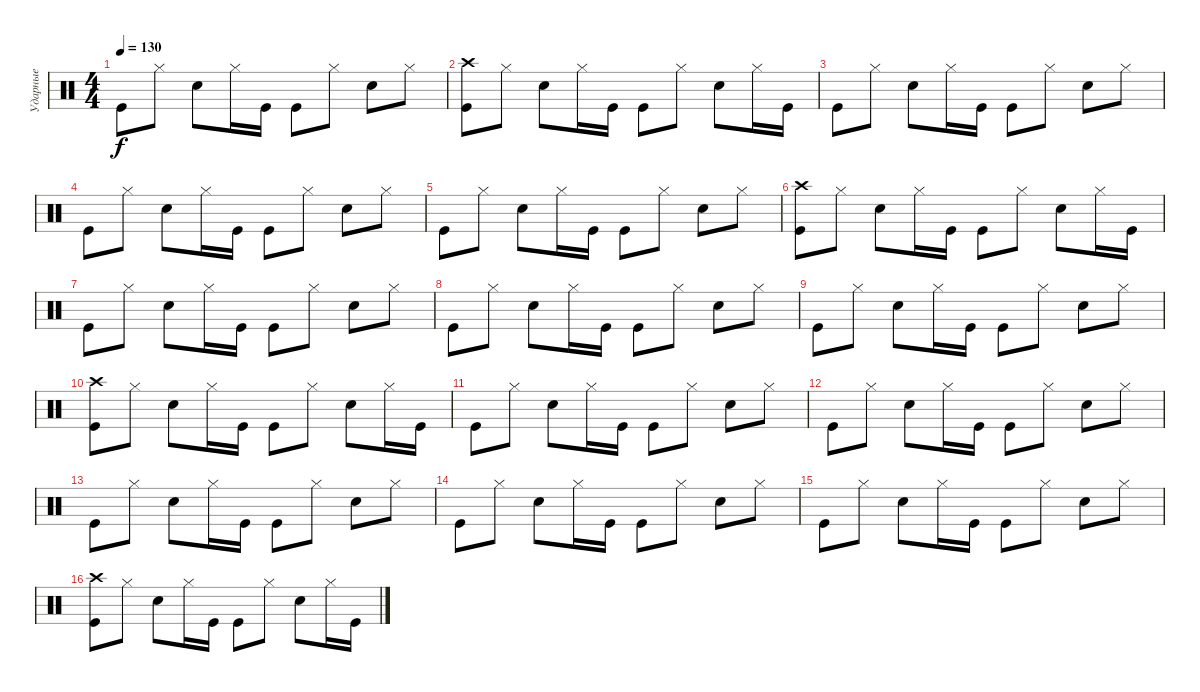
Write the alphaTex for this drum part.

\track ("Ударные" "Ударные") {instrument percussion}
\staff {score}
\articulation defaults
\ts (4 4)
\tempo 130
\clef neutral
\ks c "Kick (hit)".8{dy f} "Hi-Hat (closed)".8 "Electric Snare (hit)".8 "Hi-Hat (closed)".16 "Kick (hit)".16 "Kick (hit)".8 "Hi-Hat (closed)".8 "Electric Snare (hit)".8 "Hi-Hat (closed)".8
|
("Crash high (hit)" "Kick (hit)").8 "Hi-Hat (closed)".8 "Electric Snare (hit)".8 "Hi-Hat (closed)".16 "Kick (hit)".16 "Kick (hit)".8 "Hi-Hat (closed)".8 "Electric Snare (hit)".8 "Hi-Hat (closed)".16 "Kick (hit)".16 |
"Kick (hit)".8 "Hi-Hat (closed)".8 "Electric Snare (hit)".8 "Hi-Hat (closed)".16 "Kick (hit)".16 "Kick (hit)".8 "Hi-Hat (closed)".8 "Electric Snare (hit)".8 "Hi-Hat (closed)".8 |
"Kick (hit)".8 "Hi-Hat (closed)".8 "Electric Snare (hit)".8 "Hi-Hat (closed)".16 "Kick (hit)".16 "Kick (hit)".8 "Hi-Hat (closed)".8 "Electric Snare (hit)".8 "Hi-Hat (closed)".8 |
"Kick (hit)".8 "Hi-Hat (closed)".8 "Electric Snare (hit)".8 "Hi-Hat (closed)".16 "Kick (hit)".16 "Kick (hit)".8 "Hi-Hat (closed)".8 "Electric Snare (hit)".8 "Hi-Hat (closed)".8 |
("Crash high (hit)" "Kick (hit)").8 "Hi-Hat (closed)".8 "Electric Snare (hit)".8 "Hi-Hat (closed)".16 "Kick (hit)".16 "Kick (hit)".8 "Hi-Hat (closed)".8 "Electric Snare (hit)".8 "Hi-Hat (closed)".16 "Kick (hit)".16 |
"Kick (hit)".8 "Hi-Hat (closed)".8 "Electric Snare (hit)".8 "Hi-Hat (closed)".16 "Kick (hit)".16 "Kick (hit)".8 "Hi-Hat (closed)".8 "Electric Snare (hit)".8 "Hi-Hat (closed)".8 |
"Kick (hit)".8 "Hi-Hat (closed)".8 "Electric Snare (hit)".8 "Hi-Hat (closed)".16 "Kick (hit)".16 "Kick (hit)".8 "Hi-Hat (closed)".8 "Electric Snare (hit)".8 "Hi-Hat (closed)".8 |
"Kick (hit)".8 "Hi-Hat (closed)".8 "Electric Snare (hit)".8 "Hi-Hat (closed)".16 "Kick (hit)".16 "Kick (hit)".8 "Hi-Hat (closed)".8 "Electric Snare (hit)".8 "Hi-Hat (closed)".8 |
("Crash high (hit)" "Kick (hit)").8 "Hi-Hat (closed)".8 "Electric Snare (hit)".8 "Hi-Hat (closed)".16 "Kick (hit)".16 "Kick (hit)".8 "Hi-Hat (closed)".8 "Electric Snare (hit)".8 "Hi-Hat (closed)".16 "Kick (hit)".16 |
"Kick (hit)".8 "Hi-Hat (closed)".8 "Electric Snare (hit)".8 "Hi-Hat (closed)".16 "Kick (hit)".16 "Kick (hit)".8 "Hi-Hat (closed)".8 "Electric Snare (hit)".8 "Hi-Hat (closed)".8 |
"Kick (hit)".8 "Hi-Hat (closed)".8 "Electric Snare (hit)".8 "Hi-Hat (closed)".16 "Kick (hit)".16 "Kick (hit)".8 "Hi-Hat (closed)".8 "Electric Snare (hit)".8 "Hi-Hat (closed)".8 |
"Kick (hit)".8 "Hi-Hat (closed)".8 "Electric Snare (hit)".8 "Hi-Hat (closed)".16 "Kick (hit)".16 "Kick (hit)".8 "Hi-Hat (closed)".8 "Electric Snare (hit)".8 "Hi-Hat (closed)".8 |
"Kick (hit)".8 "Hi-Hat (closed)".8 "Electric Snare (hit)".8 "Hi-Hat (closed)".16 "Kick (hit)".16 "Kick (hit)".8 "Hi-Hat (closed)".8 "Electric Snare (hit)".8 "Hi-Hat (closed)".8 |
"Kick (hit)".8 "Hi-Hat (closed)".8 "Electric Snare (hit)".8 "Hi-Hat (closed)".16 "Kick (hit)".16 "Kick (hit)".8 "Hi-Hat (closed)".8 "Electric Snare (hit)".8 "Hi-Hat (closed)".8 |
("Crash high (hit)" "Kick (hit)").8 "Hi-Hat (closed)".8 "Electric Snare (hit)".8 "Hi-Hat (closed)".16 "Kick (hit)".16 "Kick (hit)".8 "Hi-Hat (closed)".8 "Electric Snare (hit)".8 "Hi-Hat (closed)".16 "Kick (hit)".16
